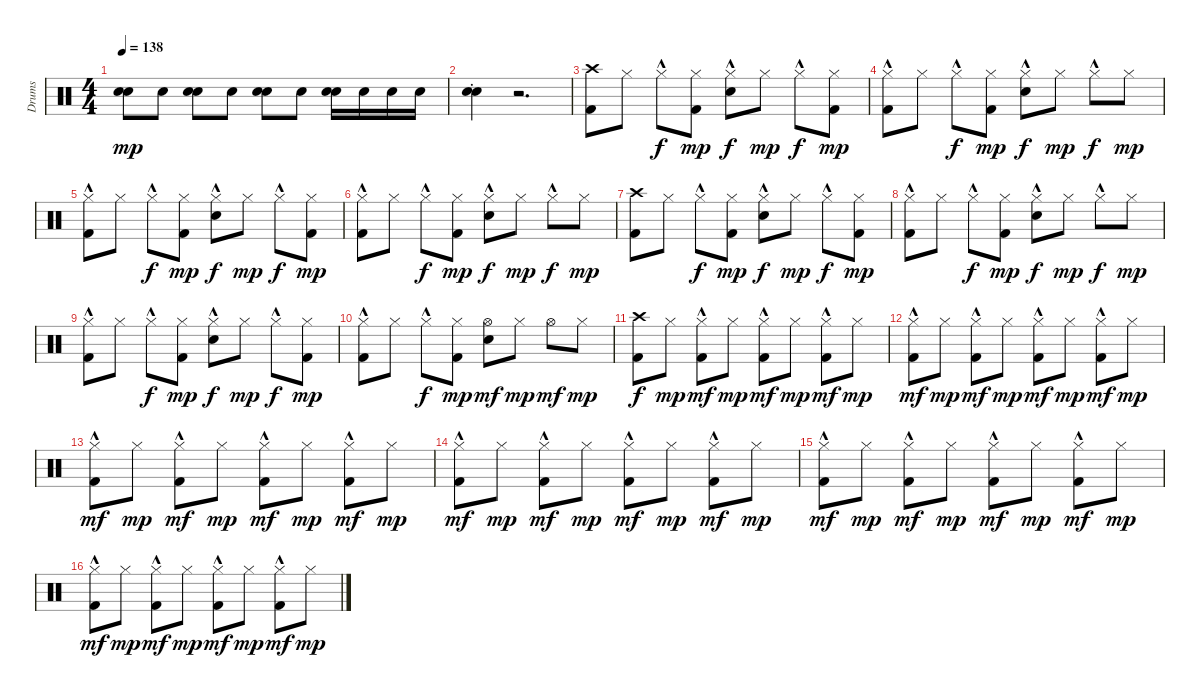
\track ("Drums" "Drums") {instrument percussion}
\staff {score}
\articulation defaults
\ts (4 4)
\tempo 138
\clef neutral
\ks c
("Snare (hit) 2" "Hand Clap (hit)").8{dy mp} "Snare (hit) 2".8 ("Snare (hit) 2" "Hand Clap (hit)").8 "Snare (hit) 2".8 ("Snare (hit) 2" "Hand Clap (hit)").8 "Snare (hit) 2".8 ("Snare (hit) 2" "Hand Clap (hit)").16 "Snare (hit) 2".16 "Snare (hit) 2".16 "Snare (hit) 2".16 |
("Snare (hit) 2" "Hand Clap (hit)"{st}).4 r.2{d} |
("Crash high (hit)" "Kick (hit) 2").8 "Hi-Hat (closed)".8 "Hi-Hat (closed)"{hac}.8{dy f} ("Hi-Hat (closed)" "Kick (hit) 2").8{dy mp} ("Hi-Hat (closed)"{hac} "Hand Clap (hit)").8{dy f} "Hi-Hat (closed)".8{dy mp} "Hi-Hat (closed)"{hac}.8{dy f} ("Hi-Hat (closed)" "Kick (hit) 2").8{dy mp} |
("Hi-Hat (closed)"{hac} "Kick (hit) 2").8 "Hi-Hat (closed)".8 "Hi-Hat (closed)"{hac}.8{dy f} ("Hi-Hat (closed)" "Kick (hit) 2").8{dy mp} ("Hi-Hat (closed)"{hac} "Hand Clap (hit)").8{dy f} "Hi-Hat (closed)".8{dy mp} "Hi-Hat (closed)"{hac}.8{dy f} "Hi-Hat (closed)".8{dy mp} |
("Hi-Hat (closed)"{hac} "Kick (hit) 2").8 "Hi-Hat (closed)".8 "Hi-Hat (closed)"{hac}.8{dy f} ("Hi-Hat (closed)" "Kick (hit) 2").8{dy mp} ("Hi-Hat (closed)"{hac} "Hand Clap (hit)").8{dy f} "Hi-Hat (closed)".8{dy mp} "Hi-Hat (closed)"{hac}.8{dy f} ("Hi-Hat (closed)" "Kick (hit) 2").8{dy mp} |
("Hi-Hat (closed)"{hac} "Kick (hit) 2").8 "Hi-Hat (closed)".8 "Hi-Hat (closed)"{hac}.8{dy f} ("Hi-Hat (closed)" "Kick (hit) 2").8{dy mp} ("Hi-Hat (closed)"{hac} "Hand Clap (hit)").8{dy f} "Hi-Hat (closed)".8{dy mp} "Hi-Hat (closed)"{hac}.8{dy f} "Hi-Hat (closed)".8{dy mp} |
("Crash high (hit)" "Kick (hit) 2").8 "Hi-Hat (closed)".8 "Hi-Hat (closed)"{hac}.8{dy f} ("Hi-Hat (closed)" "Kick (hit) 2").8{dy mp} ("Hi-Hat (closed)"{hac} "Hand Clap (hit)").8{dy f} "Hi-Hat (closed)".8{dy mp} "Hi-Hat (closed)"{hac}.8{dy f} ("Hi-Hat (closed)" "Kick (hit) 2").8{dy mp} |
("Hi-Hat (closed)"{hac} "Kick (hit) 2").8 "Hi-Hat (closed)".8 "Hi-Hat (closed)"{hac}.8{dy f} ("Hi-Hat (closed)" "Kick (hit) 2").8{dy mp} ("Hi-Hat (closed)"{hac} "Hand Clap (hit)").8{dy f} "Hi-Hat (closed)".8{dy mp} "Hi-Hat (closed)"{hac}.8{dy f} "Hi-Hat (closed)".8{dy mp} |
("Hi-Hat (closed)"{hac} "Kick (hit) 2").8 "Hi-Hat (closed)".8 "Hi-Hat (closed)"{hac}.8{dy f} ("Hi-Hat (closed)" "Kick (hit) 2").8{dy mp} ("Hi-Hat (closed)"{hac} "Hand Clap (hit)").8{dy f} "Hi-Hat (closed)".8{dy mp} "Hi-Hat (closed)"{hac}.8{dy f} ("Hi-Hat (closed)" "Kick (hit) 2").8{dy mp} |
("Hi-Hat (closed)"{hac} "Kick (hit) 2").8 "Hi-Hat (closed)".8 "Hi-Hat (closed)"{hac}.8{dy f} ("Hi-Hat (closed)" "Kick (hit) 2").8{dy mp} ("Hi-Hat (open)" "Hand Clap (hit)").8{dy mf} "Hi-Hat (closed)".8{dy mp} "Hi-Hat (open)".8{dy mf} "Hi-Hat (closed)".8{dy mp} |
("Crash high (hit)" "Kick (hit) 2").8{dy f} "Hi-Hat (closed)".8{dy mp} ("Hi-Hat (closed)"{hac} "Kick (hit) 2").8{dy mf} "Hi-Hat (closed)".8{dy mp} ("Hi-Hat (closed)"{hac} "Kick (hit) 2").8{dy mf} "Hi-Hat (closed)".8{dy mp} ("Hi-Hat (closed)"{hac} "Kick (hit) 2").8{dy mf} "Hi-Hat (closed)".8{dy mp} |
("Hi-Hat (closed)"{hac} "Kick (hit) 2").8{dy mf} "Hi-Hat (closed)".8{dy mp} ("Hi-Hat (closed)"{hac} "Kick (hit) 2").8{dy mf} "Hi-Hat (closed)".8{dy mp} ("Hi-Hat (closed)"{hac} "Kick (hit) 2").8{dy mf} "Hi-Hat (closed)".8{dy mp} ("Hi-Hat (closed)"{hac} "Kick (hit) 2").8{dy mf} "Hi-Hat (closed)".8{dy mp} |
("Hi-Hat (closed)"{hac} "Kick (hit) 2").8{dy mf} "Hi-Hat (closed)".8{dy mp} ("Hi-Hat (closed)"{hac} "Kick (hit) 2").8{dy mf} "Hi-Hat (closed)".8{dy mp} ("Hi-Hat (closed)"{hac} "Kick (hit) 2").8{dy mf} "Hi-Hat (closed)".8{dy mp} ("Hi-Hat (closed)"{hac} "Kick (hit) 2").8{dy mf} "Hi-Hat (closed)".8{dy mp} |
("Hi-Hat (closed)"{hac} "Kick (hit) 2").8{dy mf} "Hi-Hat (closed)".8{dy mp} ("Hi-Hat (closed)"{hac} "Kick (hit) 2").8{dy mf} "Hi-Hat (closed)".8{dy mp} ("Hi-Hat (closed)"{hac} "Kick (hit) 2").8{dy mf} "Hi-Hat (closed)".8{dy mp} ("Hi-Hat (closed)"{hac} "Kick (hit) 2").8{dy mf} "Hi-Hat (closed)".8{dy mp} |
("Hi-Hat (closed)"{hac} "Kick (hit) 2").8{dy mf} "Hi-Hat (closed)".8{dy mp} ("Hi-Hat (closed)"{hac} "Kick (hit) 2").8{dy mf} "Hi-Hat (closed)".8{dy mp} ("Hi-Hat (closed)"{hac} "Kick (hit) 2").8{dy mf} "Hi-Hat (closed)".8{dy mp} ("Hi-Hat (closed)"{hac} "Kick (hit) 2").8{dy mf} "Hi-Hat (closed)".8{dy mp} |
("Hi-Hat (closed)"{hac} "Kick (hit) 2").8{dy mf} "Hi-Hat (closed)".8{dy mp} ("Hi-Hat (closed)"{hac} "Kick (hit) 2").8{dy mf} "Hi-Hat (closed)".8{dy mp} ("Hi-Hat (closed)"{hac} "Kick (hit) 2").8{dy mf} "Hi-Hat (closed)".8{dy mp} ("Hi-Hat (closed)"{hac} "Kick (hit) 2").8{dy mf} "Hi-Hat (closed)".8{dy mp}
